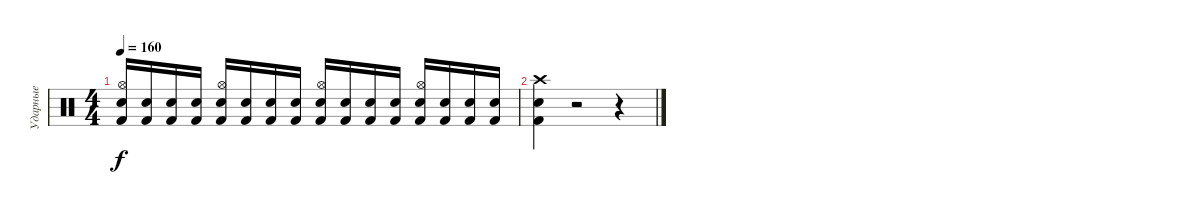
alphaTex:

\track ("Ударные" "Ударные") {instrument percussion}
\staff {score}
\articulation defaults
\ts (4 4)
\tempo 160
\clef neutral
\ks c
("Snare (hit) 2" "Hi-Hat (open)" "Kick (hit) 2").16{dy f} ("Snare (hit) 2" "Kick (hit) 2").16 ("Kick (hit) 2" "Snare (hit) 2").16 ("Snare (hit) 2" "Kick (hit) 2").16 ("Kick (hit) 2" "Hi-Hat (open)" "Snare (hit) 2").16 ("Snare (hit) 2" "Kick (hit) 2").16 ("Snare (hit) 2" "Kick (hit) 2").16 ("Snare (hit) 2" "Kick (hit) 2").16 ("Snare (hit) 2" "Kick (hit) 2" "Hi-Hat (open)").16 ("Snare (hit) 2" "Kick (hit) 2").16 ("Kick (hit) 2" "Snare (hit) 2").16 ("Kick (hit) 2" "Snare (hit) 2").16 ("Kick (hit) 2" "Hi-Hat (open)" "Snare (hit) 2").16 ("Kick (hit) 2" "Snare (hit) 2").16 ("Snare (hit) 2" "Kick (hit) 2").16 ("Kick (hit) 2" "Snare (hit) 2").16 |
("Crash high (hit)" "Kick (hit) 2" "Snare (hit) 2").4 r.2 r.4
